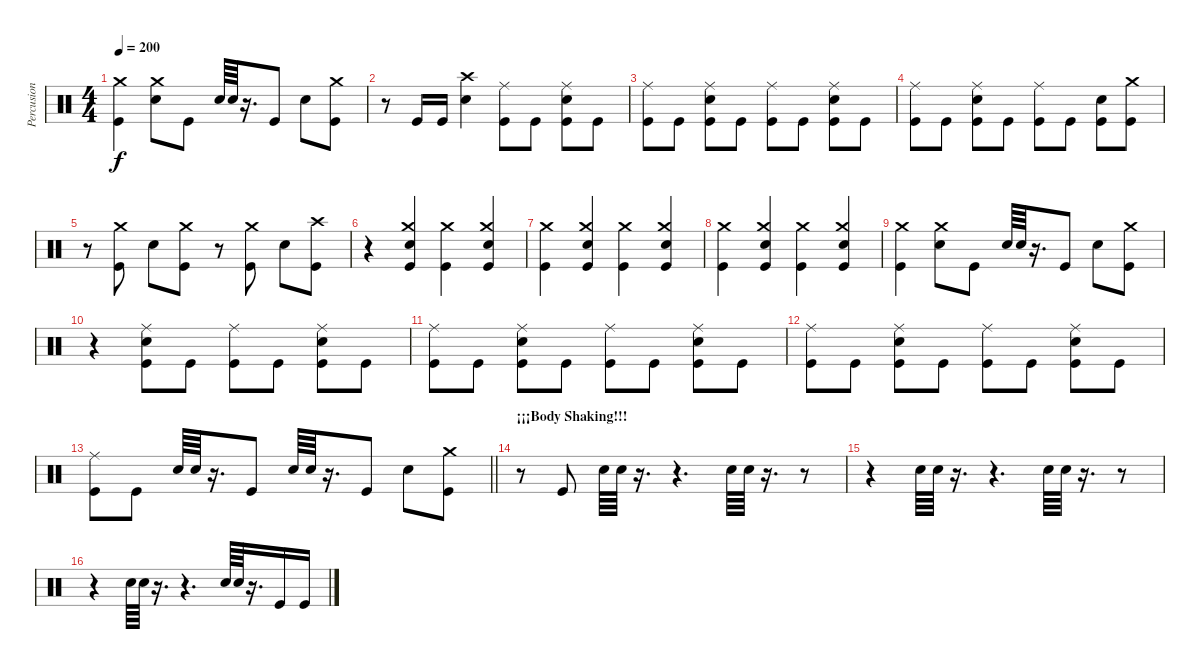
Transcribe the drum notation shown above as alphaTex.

\track ("Percusion" "Percusion") {instrument percussion}
\staff {score}
\articulation defaults
\ts (4 4)
\tempo 200
\clef neutral
\ks c
("Kick (hit)" "Crash medium (hit)").4{dy f} ("Crash medium (hit)" "Snare (hit) 2").8 "Kick (hit)".8 "Snare (hit) 2".64 "Snare (hit) 2".64 r.16{d} "Kick (hit)".8 "Snare (hit) 2".8 ("Crash medium (hit)" "Kick (hit)").8 |
r.8 "Kick (hit)".16 "Kick (hit)".16 ("Snare (hit) 2" "Crash high (hit)").4 ("Kick (hit)" "Ride (middle)").8 "Kick (hit)".8 ("Kick (hit)" "Ride (middle)" "Snare (hit) 2").8 "Kick (hit)".8 |
("Kick (hit)" "Ride (middle)").8 "Kick (hit)".8 ("Kick (hit)" "Ride (middle)" "Snare (hit) 2").8 "Kick (hit)".8 ("Kick (hit)" "Ride (middle)").8 "Kick (hit)".8 ("Kick (hit)" "Ride (middle)" "Snare (hit) 2").8 "Kick (hit)".8 |
("Kick (hit)" "Ride (middle)").8 "Kick (hit)".8 ("Kick (hit)" "Ride (middle)" "Snare (hit) 2").8 "Kick (hit)".8 ("Kick (hit)" "Ride (middle)").8 "Kick (hit)".8 ("Kick (hit)" "Snare (hit) 2").8 ("Kick (hit)" "Crash medium (hit)").8 |
r.8 ("Kick (hit)" "Crash medium (hit)").8 "Snare (hit) 2".8 ("Kick (hit)" "Crash medium (hit)").8 r.8 ("Kick (hit)" "Crash medium (hit)").8 "Snare (hit) 2".8 ("Kick (hit)" "Crash high (hit)").8 |
r.4 ("Crash medium (hit)" "Kick (hit)" "Snare (hit) 2").4 ("Kick (hit)" "Crash medium (hit)").4 ("Crash medium (hit)" "Kick (hit)" "Snare (hit) 2").4 |
("Kick (hit)" "Crash medium (hit)").4 ("Crash medium (hit)" "Kick (hit)" "Snare (hit) 2").4 ("Kick (hit)" "Crash medium (hit)").4 ("Crash medium (hit)" "Kick (hit)" "Snare (hit) 2").4 |
("Kick (hit)" "Crash medium (hit)").4 ("Crash medium (hit)" "Kick (hit)" "Snare (hit) 2").4 ("Kick (hit)" "Crash medium (hit)").4 ("Crash medium (hit)" "Kick (hit)" "Snare (hit) 2").4 |
("Kick (hit)" "Crash medium (hit)").4 ("Crash medium (hit)" "Snare (hit) 2").8 "Kick (hit)".8 "Snare (hit) 2".64 "Snare (hit) 2".64 r.16{d} "Kick (hit)".8 "Snare (hit) 2".8 ("Crash medium (hit)" "Kick (hit)").8 |
r.4 ("Snare (hit) 2" "Ride (middle)" "Kick (hit)").8 "Kick (hit)".8 ("Kick (hit)" "Ride (middle)").8 "Kick (hit)".8 ("Kick (hit)" "Ride (middle)" "Snare (hit) 2").8 "Kick (hit)".8 |
("Kick (hit)" "Ride (middle)").8 "Kick (hit)".8 ("Kick (hit)" "Ride (middle)" "Snare (hit) 2").8 "Kick (hit)".8 ("Kick (hit)" "Ride (middle)").8 "Kick (hit)".8 ("Kick (hit)" "Ride (middle)" "Snare (hit) 2").8 "Kick (hit)".8 |
("Kick (hit)" "Ride (middle)").8 "Kick (hit)".8 ("Kick (hit)" "Ride (middle)" "Snare (hit) 2").8 "Kick (hit)".8 ("Kick (hit)" "Ride (middle)").8 "Kick (hit)".8 ("Kick (hit)" "Ride (middle)" "Snare (hit) 2").8 "Kick (hit)".8 |
\barLineRight lightlight
("Ride (middle)" "Kick (hit)").8 "Kick (hit)".8 "Snare (hit) 2".64 "Snare (hit) 2".64 r.16{d} "Kick (hit)".8 "Snare (hit) 2".64 "Snare (hit) 2".64 r.16{d} "Kick (hit)".8 "Snare (hit) 2".8 ("Crash medium (hit)" "Kick (hit)").8 |
\section ("" "¡¡¡Body Shaking!!!")
r.8 "Kick (hit)".8 "Snare (hit) 2".64 "Snare (hit) 2".64 r.16{d} r.4{d} "Snare (hit) 2".64 "Snare (hit) 2".64 r.16{d} r.8 |
r.4 "Snare (hit) 2".64 "Snare (hit) 2".64 r.16{d} r.4{d} "Snare (hit) 2".64 "Snare (hit) 2".64 r.16{d} r.8 |
r.4 "Snare (hit) 2".64 "Snare (hit) 2".64 r.16{d} r.4{d} "Snare (hit) 2".64 "Snare (hit) 2".64 r.16{d} "Kick (hit)".16 "Kick (hit)".16
